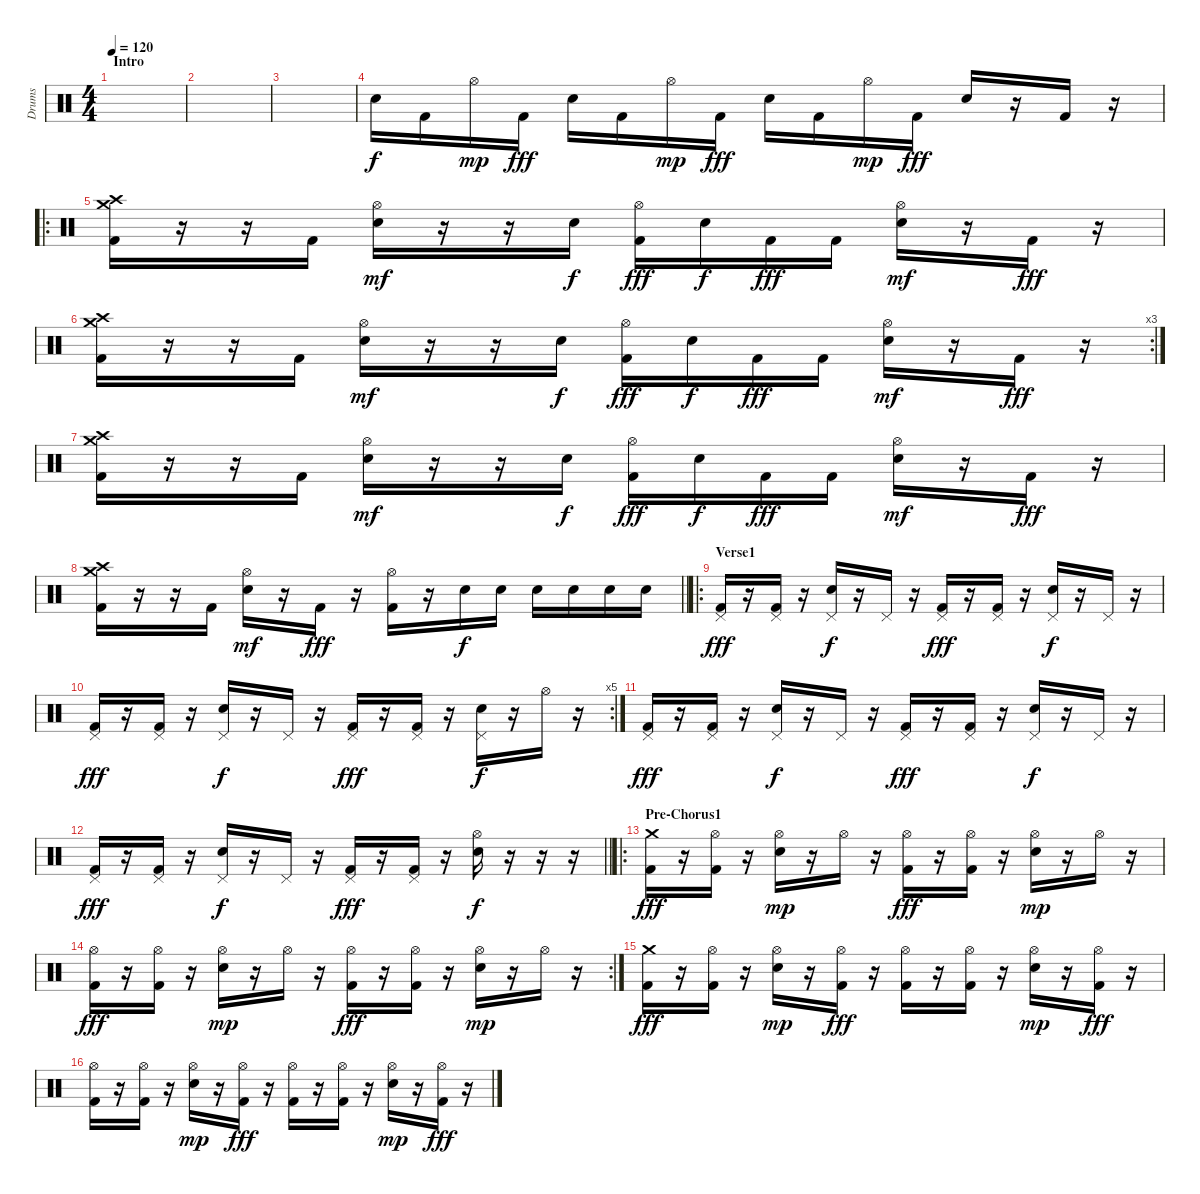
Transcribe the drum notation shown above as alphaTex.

\track ("Drums" "Drums") {instrument percussion}
\staff {score}
\articulation defaults
\ts (4 4)
\section ("" "Intro")
\tempo 120
\clef neutral
\ks c
|
|
|
"Snare (hit) 2".16 "Kick (hit) 2".16 "Hi-Hat (open)".16{dy mp} "Kick (hit) 2".16{dy fff} "Snare (hit) 2".16 "Kick (hit) 2".16 "Hi-Hat (open)".16{dy mp} "Kick (hit) 2".16{dy fff} "Snare (hit) 2".16 "Kick (hit) 2".16 "Hi-Hat (open)".16{dy mp} "Kick (hit) 2".16{dy fff} "Snare (hit) 2".16 r.16 "Kick (hit) 2".16 r.16 |
\ro
("Crash medium (hit)" "Crash high (hit)" "Kick (hit) 2").16 r.16 r.16 "Kick (hit) 2".16 ("Hi-Hat (open)" "Snare (hit) 2").16{dy mf} r.16 r.16 "Snare (hit) 2".16{dy f} ("Hi-Hat (open)" "Kick (hit) 2").16{dy fff} "Snare (hit) 2".16{dy f} "Kick (hit) 2".16{dy fff} "Kick (hit) 2".16 ("Hi-Hat (open)" "Snare (hit) 2").16{dy mf} r.16 "Kick (hit) 2".16{dy fff} r.16 |
\rc 3
("Crash medium (hit)" "Crash high (hit)" "Kick (hit) 2").16 r.16 r.16 "Kick (hit) 2".16 ("Hi-Hat (open)" "Snare (hit) 2").16{dy mf} r.16 r.16 "Snare (hit) 2".16{dy f} ("Hi-Hat (open)" "Kick (hit) 2").16{dy fff} "Snare (hit) 2".16{dy f} "Kick (hit) 2".16{dy fff} "Kick (hit) 2".16 ("Hi-Hat (open)" "Snare (hit) 2").16{dy mf} r.16 "Kick (hit) 2".16{dy fff} r.16 |
("Crash medium (hit)" "Crash high (hit)" "Kick (hit) 2").16 r.16 r.16 "Kick (hit) 2".16 ("Hi-Hat (open)" "Snare (hit) 2").16{dy mf} r.16 r.16 "Snare (hit) 2".16{dy f} ("Hi-Hat (open)" "Kick (hit) 2").16{dy fff} "Snare (hit) 2".16{dy f} "Kick (hit) 2".16{dy fff} "Kick (hit) 2".16 ("Hi-Hat (open)" "Snare (hit) 2").16{dy mf} r.16 "Kick (hit) 2".16{dy fff} r.16 |
\barLineRight lightlight
("Crash medium (hit)" "Crash high (hit)" "Kick (hit) 2").16 r.16 r.16 "Kick (hit) 2".16 ("Hi-Hat (open)" "Snare (hit) 2").16{dy mf} r.16 "Kick (hit) 2".16{dy fff} r.16 ("Hi-Hat (open)" "Kick (hit) 2").16 r.16 "Snare (hit) 2".16{dy f} "Snare (hit) 2".16 "Snare (hit) 2".16 "Snare (hit) 2".16 "Snare (hit) 2".16 "Snare (hit) 2".16 |
\ro
\section ("" "Verse1")
("Pedal Hi-Hat (hit)" "Kick (hit) 2").16{dy fff} r.16 ("Pedal Hi-Hat (hit)" "Kick (hit) 2").16 r.16 ("Pedal Hi-Hat (hit)" "Snare (hit) 2").16{dy f} r.16 "Pedal Hi-Hat (hit)".16 r.16 ("Pedal Hi-Hat (hit)" "Kick (hit) 2").16{dy fff} r.16 ("Pedal Hi-Hat (hit)" "Kick (hit) 2").16 r.16 ("Pedal Hi-Hat (hit)" "Snare (hit) 2").16{dy f} r.16 "Pedal Hi-Hat (hit)".16 r.16 |
\rc 5
("Pedal Hi-Hat (hit)" "Kick (hit) 2").16{dy fff} r.16 ("Pedal Hi-Hat (hit)" "Kick (hit) 2").16 r.16 ("Pedal Hi-Hat (hit)" "Snare (hit) 2").16{dy f} r.16 "Pedal Hi-Hat (hit)".16 r.16 ("Pedal Hi-Hat (hit)" "Kick (hit) 2").16{dy fff} r.16 ("Pedal Hi-Hat (hit)" "Kick (hit) 2").16 r.16 ("Pedal Hi-Hat (hit)" "Snare (hit) 2").16{dy f} r.16 "Hi-Hat (open)".16 r.16 |
("Pedal Hi-Hat (hit)" "Kick (hit) 2").16{dy fff} r.16 ("Pedal Hi-Hat (hit)" "Kick (hit) 2").16 r.16 ("Pedal Hi-Hat (hit)" "Snare (hit) 2").16{dy f} r.16 "Pedal Hi-Hat (hit)".16 r.16 ("Pedal Hi-Hat (hit)" "Kick (hit) 2").16{dy fff} r.16 ("Pedal Hi-Hat (hit)" "Kick (hit) 2").16 r.16 ("Pedal Hi-Hat (hit)" "Snare (hit) 2").16{dy f} r.16 "Pedal Hi-Hat (hit)".16 r.16 |
\barLineRight lightlight
("Pedal Hi-Hat (hit)" "Kick (hit) 2").16{dy fff} r.16 ("Pedal Hi-Hat (hit)" "Kick (hit) 2").16 r.16 ("Pedal Hi-Hat (hit)" "Snare (hit) 2").16{dy f} r.16 "Pedal Hi-Hat (hit)".16 r.16 ("Pedal Hi-Hat (hit)" "Kick (hit) 2").16{dy fff} r.16 ("Pedal Hi-Hat (hit)" "Kick (hit) 2").16 r.16 ("Hi-Hat (open)" "Snare (hit) 2").16{dy f} r.16 r.16 r.16 |
\ro
\section ("" "Pre-Chorus1")
("Crash medium (hit)" "Kick (hit) 2").16{dy fff} r.16 ("Hi-Hat (open)" "Kick (hit) 2").16 r.16 ("Hi-Hat (open)" "Snare (hit) 2").16{dy mp} r.16 "Hi-Hat (open)".16 r.16 ("Hi-Hat (open)" "Kick (hit) 2").16{dy fff} r.16 ("Hi-Hat (open)" "Kick (hit) 2").16 r.16 ("Hi-Hat (open)" "Snare (hit) 2").16{dy mp} r.16 "Hi-Hat (open)".16 r.16 |
\rc 2
("Hi-Hat (open)" "Kick (hit) 2").16{dy fff} r.16 ("Hi-Hat (open)" "Kick (hit) 2").16 r.16 ("Hi-Hat (open)" "Snare (hit) 2").16{dy mp} r.16 "Hi-Hat (open)".16 r.16 ("Hi-Hat (open)" "Kick (hit) 2").16{dy fff} r.16 ("Hi-Hat (open)" "Kick (hit) 2").16 r.16 ("Hi-Hat (open)" "Snare (hit) 2").16{dy mp} r.16 "Hi-Hat (open)".16 r.16 |
("Crash medium (hit)" "Kick (hit) 2").16{dy fff} r.16 ("Hi-Hat (open)" "Kick (hit) 2").16 r.16 ("Hi-Hat (open)" "Snare (hit) 2").16{dy mp} r.16 ("Hi-Hat (open)" "Kick (hit) 2").16{dy fff} r.16 ("Hi-Hat (open)" "Kick (hit) 2").16 r.16 ("Hi-Hat (open)" "Kick (hit) 2").16 r.16 ("Hi-Hat (open)" "Snare (hit) 2").16{dy mp} r.16 ("Hi-Hat (open)" "Kick (hit) 2").16{dy fff} r.16 |
("Hi-Hat (open)" "Kick (hit) 2").16 r.16 ("Hi-Hat (open)" "Kick (hit) 2").16 r.16 ("Hi-Hat (open)" "Snare (hit) 2").16{dy mp} r.16 ("Hi-Hat (open)" "Kick (hit) 2").16{dy fff} r.16 ("Hi-Hat (open)" "Kick (hit) 2").16 r.16 ("Hi-Hat (open)" "Kick (hit) 2").16 r.16 ("Hi-Hat (open)" "Snare (hit) 2").16{dy mp} r.16 ("Hi-Hat (open)" "Kick (hit) 2").16{dy fff} r.16
